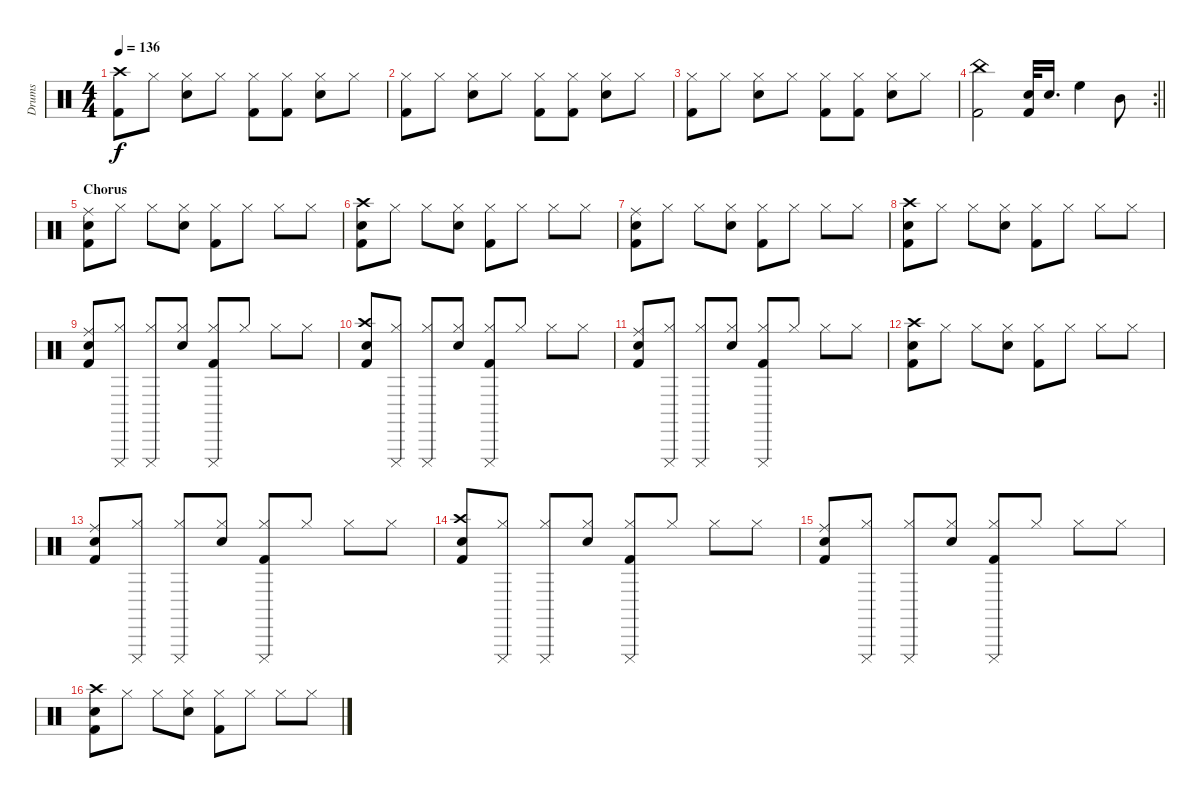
\track ("Drums" "Drums") {instrument percussion}
\staff {score}
\articulation defaults
\ts (4 4)
\tempo 136
\clef neutral
\ks c
("Crash high (hit)" "Kick (hit) 2").8{dy f} "Hi-Hat (closed)".8 ("Hi-Hat (closed)" "Electric Snare (hit)").8 "Hi-Hat (closed)".8 ("Hi-Hat (closed)" "Kick (hit) 2").8 ("Hi-Hat (closed)" "Kick (hit) 2").8 ("Hi-Hat (closed)" "Electric Snare (hit)").8 "Hi-Hat (closed)".8 |
("Hi-Hat (closed)" "Kick (hit) 2").8 "Hi-Hat (closed)".8 ("Hi-Hat (closed)" "Electric Snare (hit)").8 "Hi-Hat (closed)".8 ("Hi-Hat (closed)" "Kick (hit) 2").8 ("Hi-Hat (closed)" "Kick (hit) 2").8 ("Hi-Hat (closed)" "Electric Snare (hit)").8 "Hi-Hat (closed)".8 |
("Hi-Hat (closed)" "Kick (hit) 2").8 "Hi-Hat (closed)".8 ("Hi-Hat (closed)" "Electric Snare (hit)").8 "Hi-Hat (closed)".8 ("Hi-Hat (closed)" "Kick (hit) 2").8 ("Hi-Hat (closed)" "Kick (hit) 2").8 ("Hi-Hat (closed)" "Electric Snare (hit)").8 "Hi-Hat (closed)".8 |
\rc 2
\barLineRight lightlight
("China (hit)" "Kick (hit) 2").2 ("Electric Snare (hit)" "Kick (hit) 2").32 "Electric Snare (hit)".16{d} "High Floor Tom (hit)".4 "Mid Tom (hit)".8 |
\section ("" "Chorus")
("Ride (middle)" "Electric Snare (hit)" "Kick (hit) 2").8 "Hi-Hat (closed)".8 "Hi-Hat (closed)".8 ("Hi-Hat (closed)" "Electric Snare (hit)").8 ("Hi-Hat (closed)" "Kick (hit) 2").8 "Hi-Hat (closed)".8 "Hi-Hat (closed)".8 "Hi-Hat (closed)".8 |
("Crash high (hit)" "Electric Snare (hit)" "Kick (hit) 2").8 "Hi-Hat (closed)".8 "Hi-Hat (closed)".8 ("Hi-Hat (closed)" "Electric Snare (hit)").8 ("Hi-Hat (closed)" "Kick (hit) 2").8 "Hi-Hat (closed)".8 "Hi-Hat (closed)".8 "Hi-Hat (closed)".8 |
("Ride (middle)" "Electric Snare (hit)" "Kick (hit) 2").8 "Hi-Hat (closed)".8 "Hi-Hat (closed)".8 ("Hi-Hat (closed)" "Electric Snare (hit)").8 ("Hi-Hat (closed)" "Kick (hit) 2").8 "Hi-Hat (closed)".8 "Hi-Hat (closed)".8 "Hi-Hat (closed)".8 |
("Crash high (hit)" "Electric Snare (hit)" "Kick (hit) 2").8 "Hi-Hat (closed)".8 "Hi-Hat (closed)".8 ("Hi-Hat (closed)" "Electric Snare (hit)").8 ("Hi-Hat (closed)" "Kick (hit) 2").8 "Hi-Hat (closed)".8 "Hi-Hat (closed)".8 "Hi-Hat (closed)".8 |
("Ride (middle)" "Electric Snare (hit)" "Kick (hit) 2").8 ("Cuica (mute)" "Hi-Hat (closed)").8 ("Cuica (mute)" "Hi-Hat (closed)").8 ("Hi-Hat (closed)" "Electric Snare (hit)").8 ("Cuica (mute)" "Hi-Hat (closed)" "Kick (hit) 2").8 "Hi-Hat (closed)".8 "Hi-Hat (closed)".8 "Hi-Hat (closed)".8 |
("Crash high (hit)" "Electric Snare (hit)" "Kick (hit) 2").8 ("Cuica (mute)" "Hi-Hat (closed)").8 ("Cuica (mute)" "Hi-Hat (closed)").8 ("Hi-Hat (closed)" "Electric Snare (hit)").8 ("Cuica (mute)" "Hi-Hat (closed)" "Kick (hit) 2").8 "Hi-Hat (closed)".8 "Hi-Hat (closed)".8 "Hi-Hat (closed)".8 |
("Ride (middle)" "Electric Snare (hit)" "Kick (hit) 2").8 ("Cuica (mute)" "Hi-Hat (closed)").8 ("Cuica (mute)" "Hi-Hat (closed)").8 ("Hi-Hat (closed)" "Electric Snare (hit)").8 ("Cuica (mute)" "Hi-Hat (closed)" "Kick (hit) 2").8 "Hi-Hat (closed)".8 "Hi-Hat (closed)".8 "Hi-Hat (closed)".8 |
("Crash high (hit)" "Electric Snare (hit)" "Kick (hit) 2").8 "Hi-Hat (closed)".8 "Hi-Hat (closed)".8 ("Hi-Hat (closed)" "Electric Snare (hit)").8 ("Hi-Hat (closed)" "Kick (hit) 2").8 "Hi-Hat (closed)".8 "Hi-Hat (closed)".8 "Hi-Hat (closed)".8 |
("Ride (middle)" "Electric Snare (hit)" "Kick (hit) 2").8 ("Cuica (mute)" "Hi-Hat (closed)").8 ("Cuica (mute)" "Hi-Hat (closed)").8 ("Hi-Hat (closed)" "Electric Snare (hit)").8 ("Cuica (mute)" "Hi-Hat (closed)" "Kick (hit) 2").8 "Hi-Hat (closed)".8 "Hi-Hat (closed)".8 "Hi-Hat (closed)".8 |
("Crash high (hit)" "Electric Snare (hit)" "Kick (hit) 2").8 ("Cuica (mute)" "Hi-Hat (closed)").8 ("Cuica (mute)" "Hi-Hat (closed)").8 ("Hi-Hat (closed)" "Electric Snare (hit)").8 ("Cuica (mute)" "Hi-Hat (closed)" "Kick (hit) 2").8 "Hi-Hat (closed)".8 "Hi-Hat (closed)".8 "Hi-Hat (closed)".8 |
("Ride (middle)" "Electric Snare (hit)" "Kick (hit) 2").8 ("Cuica (mute)" "Hi-Hat (closed)").8 ("Cuica (mute)" "Hi-Hat (closed)").8 ("Hi-Hat (closed)" "Electric Snare (hit)").8 ("Cuica (mute)" "Hi-Hat (closed)" "Kick (hit) 2").8 "Hi-Hat (closed)".8 "Hi-Hat (closed)".8 "Hi-Hat (closed)".8 |
("Crash high (hit)" "Electric Snare (hit)" "Kick (hit) 2").8 "Hi-Hat (closed)".8 "Hi-Hat (closed)".8 ("Hi-Hat (closed)" "Electric Snare (hit)").8 ("Hi-Hat (closed)" "Kick (hit) 2").8 "Hi-Hat (closed)".8 "Hi-Hat (closed)".8 "Hi-Hat (closed)".8
